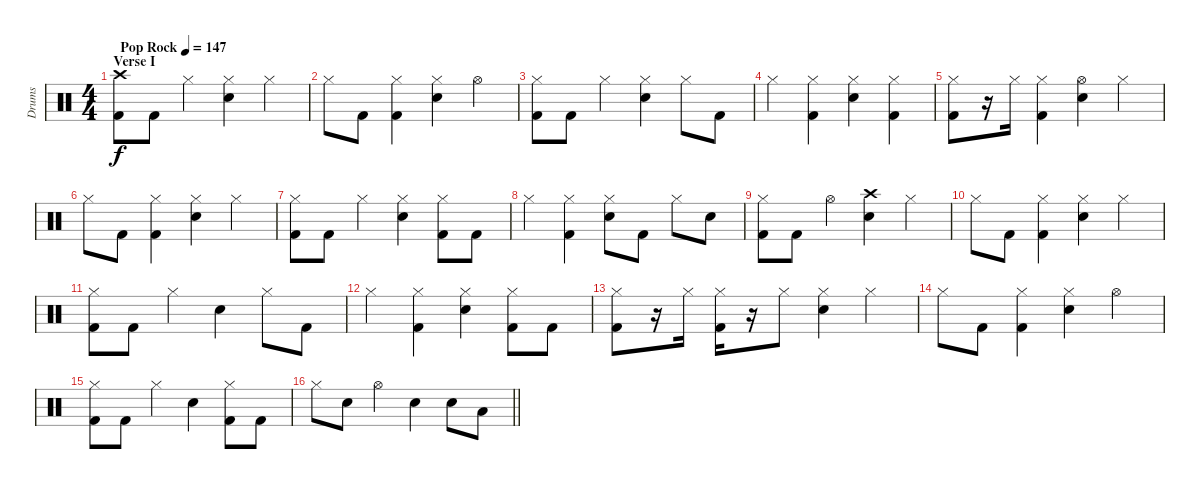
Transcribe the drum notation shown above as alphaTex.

\track ("Drums" "Drums") {instrument percussion}
\staff {score}
\articulation defaults
\ts (4 4)
\section ("" "Verse I")
\tempo (147 "Pop Rock")
\clef neutral
\ks c
("Crash high (hit)" "Kick (hit) 2").8{dy f} "Kick (hit) 2".8 "Hi-Hat (closed)".4 ("Hi-Hat (closed)" "Electric Snare (hit)").4 "Hi-Hat (closed)".4 |
"Hi-Hat (closed)".8 "Kick (hit) 2".8 ("Hi-Hat (closed)" "Kick (hit) 2").4 ("Hi-Hat (closed)" "Electric Snare (hit)").4 "Hi-Hat (open)".4 |
("Hi-Hat (closed)" "Kick (hit) 2").8 "Kick (hit) 2".8 "Hi-Hat (closed)".4 ("Hi-Hat (closed)" "Electric Snare (hit)").4 "Hi-Hat (closed)".8 "Kick (hit) 2".8 |
"Hi-Hat (closed)".4 ("Hi-Hat (closed)" "Kick (hit) 2").4 ("Hi-Hat (closed)" "Electric Snare (hit)").4 ("Hi-Hat (closed)" "Kick (hit) 2").4 |
("Hi-Hat (closed)" "Kick (hit) 2").8 r.16 "Hi-Hat (closed)".16 ("Hi-Hat (closed)" "Kick (hit) 2").4 ("Hi-Hat (open)" "Electric Snare (hit)").4 "Hi-Hat (closed)".4 |
"Hi-Hat (closed)".8 "Kick (hit) 2".8 ("Hi-Hat (closed)" "Kick (hit) 2").4 ("Hi-Hat (closed)" "Electric Snare (hit)").4 "Hi-Hat (closed)".4 |
("Hi-Hat (closed)" "Kick (hit) 2").8 "Kick (hit) 2".8 "Hi-Hat (closed)".4 ("Hi-Hat (closed)" "Electric Snare (hit)").4 ("Hi-Hat (closed)" "Kick (hit) 2").8 "Kick (hit) 2".8 |
"Hi-Hat (closed)".4 ("Hi-Hat (closed)" "Kick (hit) 2").4 ("Hi-Hat (closed)" "Electric Snare (hit)").8 "Kick (hit) 2".8 "Hi-Hat (closed)".8 "Electric Snare (hit)".8 |
("Hi-Hat (closed)" "Kick (hit) 2").8 "Kick (hit) 2".8 "Hi-Hat (open)".4 ("Crash high (hit)" "Electric Snare (hit)").4 "Hi-Hat (closed)".4 |
"Hi-Hat (closed)".8 "Kick (hit) 2".8 ("Hi-Hat (closed)" "Kick (hit) 2").4 ("Hi-Hat (closed)" "Electric Snare (hit)").4 "Hi-Hat (closed)".4 |
("Hi-Hat (closed)" "Kick (hit) 2").8 "Kick (hit) 2".8 "Hi-Hat (closed)".4 "Electric Snare (hit)".4 "Hi-Hat (closed)".8 "Kick (hit) 2".8 |
"Hi-Hat (closed)".4 ("Hi-Hat (closed)" "Kick (hit) 2").4 ("Hi-Hat (closed)" "Electric Snare (hit)").4 ("Hi-Hat (closed)" "Kick (hit) 2").8 "Kick (hit) 2".8 |
("Hi-Hat (closed)" "Kick (hit) 2").8 r.16 "Hi-Hat (closed)".16 ("Hi-Hat (closed)" "Kick (hit) 2").16 r.16 "Hi-Hat (closed)".8 ("Hi-Hat (closed)" "Electric Snare (hit)").4 "Hi-Hat (closed)".4 |
"Hi-Hat (closed)".8 "Kick (hit) 2".8 ("Hi-Hat (closed)" "Kick (hit) 2").4 ("Hi-Hat (closed)" "Electric Snare (hit)").4 "Hi-Hat (open)".4 |
("Hi-Hat (closed)" "Kick (hit) 2").8 "Kick (hit) 2".8 "Hi-Hat (closed)".4 "Electric Snare (hit)".4 ("Hi-Hat (closed)" "Kick (hit) 2").8 "Kick (hit) 2".8 |
\barLineRight lightlight "Hi-Hat (closed)".8 "Electric Snare (hit)".8 "Hi-Hat (open)".4 "Electric Snare (hit)".4 "Electric Snare (hit)".8 "Low Tom (hit)".8
